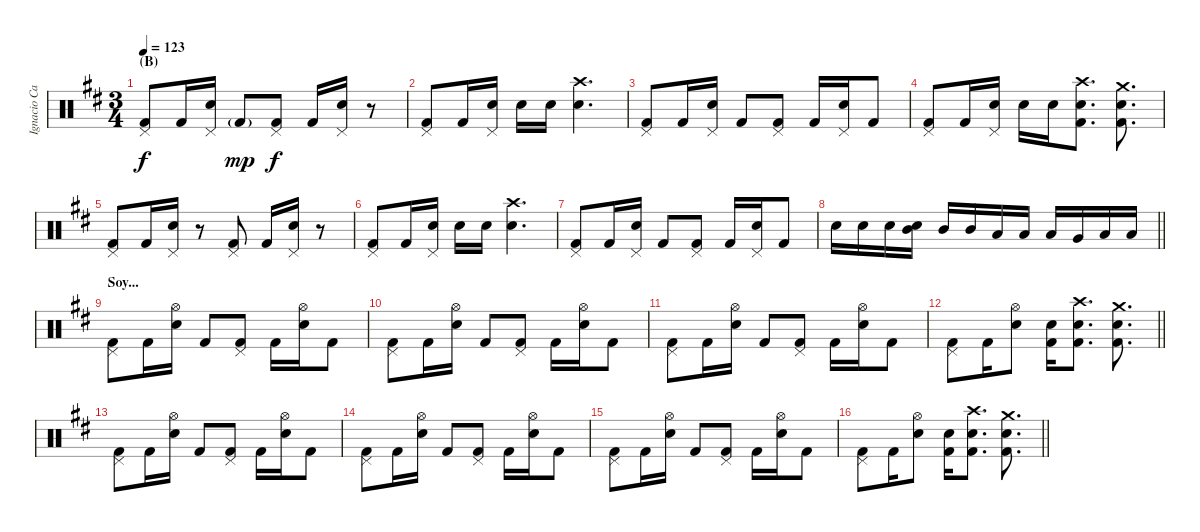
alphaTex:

\track ("Ignacio Cantera - Batería" "Ignacio Ca") {instrument percussion}
\staff {score}
\articulation defaults
\ts (3 4)
\section ("" "(B)")
\tempo 123
\clef neutral
\ks bminor
("Pedal Hi-Hat (hit)" "Kick (hit) 2").8{dy f} "Kick (hit) 2".16 ("Pedal Hi-Hat (hit)" "Snare (hit) 2").16 "Kick (hit) 2"{g}.8{dy mp} ("Pedal Hi-Hat (hit)" "Kick (hit) 2").8{dy f} "Kick (hit) 2".16 ("Pedal Hi-Hat (hit)" "Snare (hit) 2").16 r.8 |
("Pedal Hi-Hat (hit)" "Kick (hit) 2").8 "Kick (hit) 2".16 ("Pedal Hi-Hat (hit)" "Electric Snare (hit)").16 "Electric Snare (hit)".16 "Electric Snare (hit)".16 ("Crash high (hit)" "Snare (hit) 2").4{d} |
("Pedal Hi-Hat (hit)" "Kick (hit) 2").8 "Kick (hit) 2".16 ("Pedal Hi-Hat (hit)" "Snare (hit) 2").16 "Kick (hit) 2".8 ("Pedal Hi-Hat (hit)" "Kick (hit) 2").8 "Kick (hit) 2".16 ("Pedal Hi-Hat (hit)" "Snare (hit) 2").16 "Kick (hit) 2".8 |
("Pedal Hi-Hat (hit)" "Kick (hit) 2").8 "Kick (hit) 2".16 ("Pedal Hi-Hat (hit)" "Electric Snare (hit)").16 "Electric Snare (hit)".16 "Electric Snare (hit)".16 ("Crash high (hit)" "Snare (hit) 2" "Kick (hit) 2").8{d} ("Crash medium (hit)" "Snare (hit) 2" "Kick (hit) 2").8{d} |
("Pedal Hi-Hat (hit)" "Kick (hit) 2").8 "Kick (hit) 2".16 ("Pedal Hi-Hat (hit)" "Snare (hit) 2").16 r.8 ("Pedal Hi-Hat (hit)" "Kick (hit) 2").8 "Kick (hit) 2".16 ("Pedal Hi-Hat (hit)" "Snare (hit) 2").16 r.8 |
("Pedal Hi-Hat (hit)" "Kick (hit) 2").8 "Kick (hit) 2".16 ("Pedal Hi-Hat (hit)" "Electric Snare (hit)").16 "Electric Snare (hit)".16 "Electric Snare (hit)".16 ("Crash high (hit)" "Snare (hit) 2").4{d} |
("Pedal Hi-Hat (hit)" "Kick (hit) 2").8 "Kick (hit) 2".16 ("Pedal Hi-Hat (hit)" "Snare (hit) 2").16 "Kick (hit) 2".8 ("Pedal Hi-Hat (hit)" "Kick (hit) 2").8 "Kick (hit) 2".16 ("Pedal Hi-Hat (hit)" "Snare (hit) 2").16 "Kick (hit) 2".8 |
\barLineRight lightlight "Electric Snare (hit)".16 "Electric Snare (hit)".16 "Electric Snare (hit)".16
("Mid Tom (hit)" "Snare (hit) 2").16 "Mid Tom (hit)".16 "Mid Tom (hit)".16 "Low Tom (hit)".16 "Low Tom (hit)".16 "Low Tom (hit)".16 "Very Low Tom (hit)".16 "Low Floor Tom (hit)".16 "Low Floor Tom (hit)".16 |
\section ("" "Soy...")
("Pedal Hi-Hat (hit)" "Kick (hit) 2").8 "Kick (hit) 2".16 ("Hi-Hat (open)" "Snare (hit) 2").16 "Kick (hit) 2".8 ("Pedal Hi-Hat (hit)" "Kick (hit) 2").8 "Kick (hit) 2".16 ("Hi-Hat (open)" "Snare (hit) 2").16 "Kick (hit) 2".8 |
("Pedal Hi-Hat (hit)" "Kick (hit) 2").8 "Kick (hit) 2".16 ("Hi-Hat (open)" "Snare (hit) 2").16 "Kick (hit) 2".8 ("Pedal Hi-Hat (hit)" "Kick (hit) 2").8 "Kick (hit) 2".16 ("Hi-Hat (open)" "Snare (hit) 2").16 "Kick (hit) 2".8 |
("Pedal Hi-Hat (hit)" "Kick (hit) 2").8 "Kick (hit) 2".16 ("Hi-Hat (open)" "Snare (hit) 2").16 "Kick (hit) 2".8 ("Pedal Hi-Hat (hit)" "Kick (hit) 2").8 "Kick (hit) 2".16 ("Hi-Hat (open)" "Snare (hit) 2").16 "Kick (hit) 2".8 |
\barLineRight lightlight
("Pedal Hi-Hat (hit)" "Kick (hit) 2").8 "Kick (hit) 2".16 ("Hi-Hat (open)" "Snare (hit) 2").8 ("Electric Snare (hit)" "Kick (hit) 2").16 ("Crash high (hit)" "Snare (hit) 2" "Kick (hit) 2").8{d} ("Crash medium (hit)" "Snare (hit) 2" "Kick (hit) 2").8{d} |
("Pedal Hi-Hat (hit)" "Kick (hit) 2").8 "Kick (hit) 2".16 ("Hi-Hat (open)" "Snare (hit) 2").16 "Kick (hit) 2".8 ("Pedal Hi-Hat (hit)" "Kick (hit) 2").8 "Kick (hit) 2".16 ("Hi-Hat (open)" "Snare (hit) 2").16 "Kick (hit) 2".8 |
("Pedal Hi-Hat (hit)" "Kick (hit) 2").8 "Kick (hit) 2".16 ("Hi-Hat (open)" "Snare (hit) 2").16 "Kick (hit) 2".8 ("Pedal Hi-Hat (hit)" "Kick (hit) 2").8 "Kick (hit) 2".16 ("Hi-Hat (open)" "Snare (hit) 2").16 "Kick (hit) 2".8 |
("Pedal Hi-Hat (hit)" "Kick (hit) 2").8 "Kick (hit) 2".16 ("Hi-Hat (open)" "Snare (hit) 2").16 "Kick (hit) 2".8 ("Pedal Hi-Hat (hit)" "Kick (hit) 2").8 "Kick (hit) 2".16 ("Hi-Hat (open)" "Snare (hit) 2").16 "Kick (hit) 2".8 |
\barLineRight lightlight
("Pedal Hi-Hat (hit)" "Kick (hit) 2").8 "Kick (hit) 2".16 ("Hi-Hat (open)" "Snare (hit) 2").8 ("Electric Snare (hit)" "Kick (hit) 2").16 ("Crash high (hit)" "Snare (hit) 2" "Kick (hit) 2").8{d} ("Crash medium (hit)" "Snare (hit) 2" "Kick (hit) 2").8{d}
